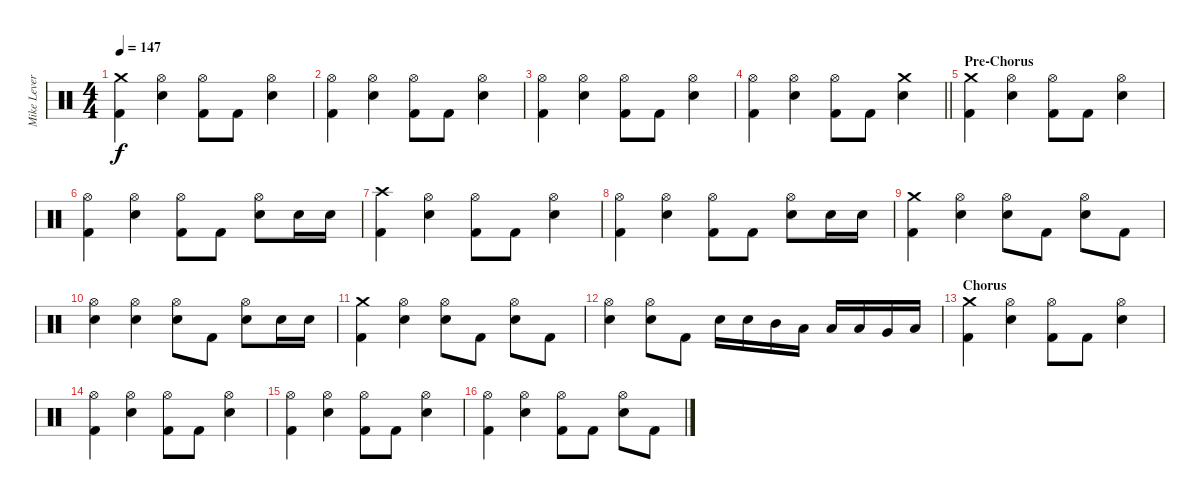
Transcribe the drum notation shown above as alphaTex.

\track ("Mike Leverence - Drums" "Mike Lever") {instrument percussion}
\staff {score}
\articulation defaults
\ts (4 4)
\tempo 147
\clef neutral
\ks c
("Crash medium (hit)" "Kick (hit) 2").4{dy f} ("Hi-Hat (open)" "Electric Snare (hit)").4 ("Hi-Hat (open)" "Kick (hit) 2").8 "Kick (hit) 2".8 ("Hi-Hat (open)" "Electric Snare (hit)").4 |
("Hi-Hat (open)" "Kick (hit) 2").4 ("Hi-Hat (open)" "Electric Snare (hit)").4 ("Hi-Hat (open)" "Kick (hit) 2").8 "Kick (hit) 2".8 ("Hi-Hat (open)" "Electric Snare (hit)").4 |
("Hi-Hat (open)" "Kick (hit) 2").4 ("Hi-Hat (open)" "Electric Snare (hit)").4 ("Hi-Hat (open)" "Kick (hit) 2").8 "Kick (hit) 2".8 ("Hi-Hat (open)" "Electric Snare (hit)").4 |
\barLineRight lightlight
("Hi-Hat (open)" "Kick (hit) 2").4 ("Hi-Hat (open)" "Electric Snare (hit)").4 ("Hi-Hat (open)" "Kick (hit) 2").8 "Kick (hit) 2".8 ("Crash medium (hit)" "Electric Snare (hit)").4 |
\section ("" "Pre-Chorus")
("Crash medium (hit)" "Kick (hit) 2").4 ("Hi-Hat (open)" "Electric Snare (hit)").4 ("Hi-Hat (open)" "Kick (hit) 2").8 "Kick (hit) 2".8 ("Hi-Hat (open)" "Electric Snare (hit)").4 |
("Hi-Hat (open)" "Kick (hit) 2").4 ("Hi-Hat (open)" "Electric Snare (hit)").4 ("Hi-Hat (open)" "Kick (hit) 2").8 "Kick (hit) 2".8 ("Hi-Hat (open)" "Electric Snare (hit)").8 "Electric Snare (hit)".16 "Electric Snare (hit)".16 |
("Crash high (hit)" "Kick (hit) 2").4 ("Hi-Hat (open)" "Electric Snare (hit)").4 ("Hi-Hat (open)" "Kick (hit) 2").8 "Kick (hit) 2".8 ("Hi-Hat (open)" "Electric Snare (hit)").4 |
("Hi-Hat (open)" "Kick (hit) 2").4 ("Hi-Hat (open)" "Electric Snare (hit)").4 ("Hi-Hat (open)" "Kick (hit) 2").8 "Kick (hit) 2".8 ("Hi-Hat (open)" "Electric Snare (hit)").8 "Electric Snare (hit)".16 "Electric Snare (hit)".16 |
("Crash medium (hit)" "Kick (hit) 2").4 ("Hi-Hat (open)" "Electric Snare (hit)").4 ("Hi-Hat (open)" "Electric Snare (hit)").8 "Kick (hit) 2".8 ("Hi-Hat (open)" "Electric Snare (hit)").8 "Kick (hit) 2".8 |
("Hi-Hat (open)" "Electric Snare (hit)").4 ("Hi-Hat (open)" "Electric Snare (hit)").4 ("Hi-Hat (open)" "Electric Snare (hit)").8 "Kick (hit) 2".8 ("Hi-Hat (open)" "Electric Snare (hit)").8 "Electric Snare (hit)".16 "Electric Snare (hit)".16 |
("Crash medium (hit)" "Kick (hit) 2").4 ("Hi-Hat (open)" "Electric Snare (hit)").4 ("Hi-Hat (open)" "Electric Snare (hit)").8 "Kick (hit) 2".8 ("Hi-Hat (open)" "Electric Snare (hit)").8 "Kick (hit) 2".8 |
("Hi-Hat (open)" "Electric Snare (hit)").4 ("Hi-Hat (open)" "Electric Snare (hit)").8 "Kick (hit) 2".8 "Electric Snare (hit)".16 "Electric Snare (hit)".16 "Mid Tom (hit)".16 "Low Tom (hit)".16 "Low Tom (hit)".16 "Low Tom (hit)".16 "Very Low Tom (hit)".16 "Low Tom (hit)".16 |
\section ("" "Chorus")
("Crash medium (hit)" "Kick (hit) 2").4 ("Hi-Hat (open)" "Electric Snare (hit)").4 ("Hi-Hat (open)" "Kick (hit) 2").8 "Kick (hit) 2".8 ("Hi-Hat (open)" "Electric Snare (hit)").4 |
("Hi-Hat (open)" "Kick (hit) 2").4 ("Hi-Hat (open)" "Electric Snare (hit)").4 ("Hi-Hat (open)" "Kick (hit) 2").8 "Kick (hit) 2".8 ("Hi-Hat (open)" "Electric Snare (hit)").4 |
("Hi-Hat (open)" "Kick (hit) 2").4 ("Hi-Hat (open)" "Electric Snare (hit)").4 ("Hi-Hat (open)" "Kick (hit) 2").8 "Kick (hit) 2".8 ("Hi-Hat (open)" "Electric Snare (hit)").4 |
("Hi-Hat (open)" "Kick (hit) 2").4 ("Hi-Hat (open)" "Electric Snare (hit)").4 ("Hi-Hat (open)" "Kick (hit) 2").8 "Kick (hit) 2".8 ("Hi-Hat (open)" "Electric Snare (hit)").8 "Kick (hit) 2".8
